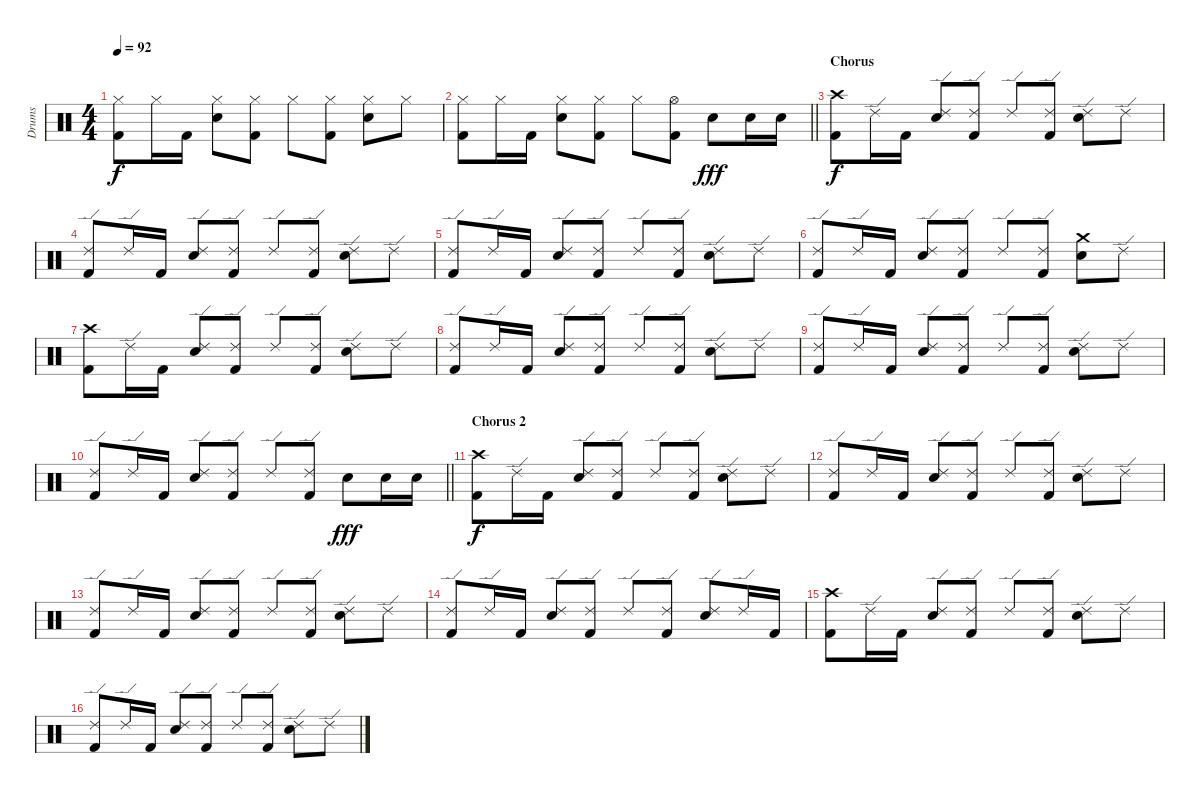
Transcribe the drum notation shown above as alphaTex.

\track ("Drums" "Drums") {instrument percussion}
\staff {score}
\articulation defaults
\ts (4 4)
\tempo 92
\clef neutral
\ks c
("Hi-Hat (closed)" "Kick (hit) 2").8{dy f} "Hi-Hat (closed)".16 "Kick (hit) 2".16 ("Hi-Hat (closed)" "Electric Snare (hit)").8 ("Hi-Hat (closed)" "Kick (hit) 2").8 "Hi-Hat (closed)".8 ("Hi-Hat (closed)" "Kick (hit) 2").8 ("Hi-Hat (closed)" "Electric Snare (hit)").8 "Hi-Hat (closed)".8 |
\barLineRight lightlight
("Hi-Hat (closed)" "Kick (hit) 2").8 "Hi-Hat (closed)".16 "Kick (hit) 2".16 ("Hi-Hat (closed)" "Electric Snare (hit)").8 ("Hi-Hat (closed)" "Kick (hit) 2").8 "Hi-Hat (closed)".8 ("Hi-Hat (open)" "Kick (hit) 2").8 "Electric Snare (hit)".8{dy fff} "Electric Snare (hit)".16 "Electric Snare (hit)".16 |
\section ("" "Chorus")
("Crash high (hit)" "Kick (hit) 2").8{dy f} "Ride (edge) 2".16 "Kick (hit) 2".16 ("Ride (edge) 2" "Electric Snare (hit)").8 ("Ride (edge) 2" "Kick (hit) 2").8 "Ride (edge) 2".8 ("Ride (edge) 2" "Kick (hit) 2").8 ("Ride (edge) 2" "Electric Snare (hit)").8 "Ride (edge) 2".8 |
("Ride (edge) 2" "Kick (hit) 2").8 "Ride (edge) 2".16 "Kick (hit) 2".16 ("Ride (edge) 2" "Electric Snare (hit)").8 ("Ride (edge) 2" "Kick (hit) 2").8 "Ride (edge) 2".8 ("Ride (edge) 2" "Kick (hit) 2").8 ("Ride (edge) 2" "Electric Snare (hit)").8 "Ride (edge) 2".8 |
("Ride (edge) 2" "Kick (hit) 2").8 "Ride (edge) 2".16 "Kick (hit) 2".16 ("Ride (edge) 2" "Electric Snare (hit)").8 ("Ride (edge) 2" "Kick (hit) 2").8 "Ride (edge) 2".8 ("Ride (edge) 2" "Kick (hit) 2").8 ("Ride (edge) 2" "Electric Snare (hit)").8 "Ride (edge) 2".8 |
("Ride (edge) 2" "Kick (hit) 2").8 "Ride (edge) 2".16 "Kick (hit) 2".16 ("Ride (edge) 2" "Electric Snare (hit)").8 ("Ride (edge) 2" "Kick (hit) 2").8 "Ride (edge) 2".8 ("Ride (edge) 2" "Kick (hit) 2").8 ("Crash medium (hit)" "Electric Snare (hit)").8 "Ride (edge) 2".8 |
("Crash high (hit)" "Kick (hit) 2").8 "Ride (edge) 2".16 "Kick (hit) 2".16 ("Ride (edge) 2" "Electric Snare (hit)").8 ("Ride (edge) 2" "Kick (hit) 2").8 "Ride (edge) 2".8 ("Ride (edge) 2" "Kick (hit) 2").8 ("Ride (edge) 2" "Electric Snare (hit)").8 "Ride (edge) 2".8 |
("Ride (edge) 2" "Kick (hit) 2").8 "Ride (edge) 2".16 "Kick (hit) 2".16 ("Ride (edge) 2" "Electric Snare (hit)").8 ("Ride (edge) 2" "Kick (hit) 2").8 "Ride (edge) 2".8 ("Ride (edge) 2" "Kick (hit) 2").8 ("Ride (edge) 2" "Electric Snare (hit)").8 "Ride (edge) 2".8 |
("Ride (edge) 2" "Kick (hit) 2").8 "Ride (edge) 2".16 "Kick (hit) 2".16 ("Ride (edge) 2" "Electric Snare (hit)").8 ("Ride (edge) 2" "Kick (hit) 2").8 "Ride (edge) 2".8 ("Ride (edge) 2" "Kick (hit) 2").8 ("Ride (edge) 2" "Electric Snare (hit)").8 "Ride (edge) 2".8 |
\barLineRight lightlight
("Ride (edge) 2" "Kick (hit) 2").8 "Ride (edge) 2".16 "Kick (hit) 2".16 ("Ride (edge) 2" "Electric Snare (hit)").8 ("Ride (edge) 2" "Kick (hit) 2").8 "Ride (edge) 2".8 ("Ride (edge) 2" "Kick (hit) 2").8 "Electric Snare (hit)".8{dy fff} "Electric Snare (hit)".16 "Electric Snare (hit)".16 |
\section ("" "Chorus 2")
("Crash high (hit)" "Kick (hit) 2").8{dy f} "Ride (edge) 2".16 "Kick (hit) 2".16 ("Ride (edge) 2" "Electric Snare (hit)").8 ("Ride (edge) 2" "Kick (hit) 2").8 "Ride (edge) 2".8 ("Ride (edge) 2" "Kick (hit) 2").8 ("Ride (edge) 2" "Electric Snare (hit)").8 "Ride (edge) 2".8 |
("Ride (edge) 2" "Kick (hit) 2").8 "Ride (edge) 2".16 "Kick (hit) 2".16 ("Ride (edge) 2" "Electric Snare (hit)").8 ("Ride (edge) 2" "Kick (hit) 2").8 "Ride (edge) 2".8 ("Ride (edge) 2" "Kick (hit) 2").8 ("Ride (edge) 2" "Electric Snare (hit)").8 "Ride (edge) 2".8 |
("Ride (edge) 2" "Kick (hit) 2").8 "Ride (edge) 2".16 "Kick (hit) 2".16 ("Ride (edge) 2" "Electric Snare (hit)").8 ("Ride (edge) 2" "Kick (hit) 2").8 "Ride (edge) 2".8 ("Ride (edge) 2" "Kick (hit) 2").8 ("Ride (edge) 2" "Electric Snare (hit)").8 "Ride (edge) 2".8 |
("Ride (edge) 2" "Kick (hit) 2").8 "Ride (edge) 2".16 "Kick (hit) 2".16 ("Ride (edge) 2" "Electric Snare (hit)").8 ("Ride (edge) 2" "Kick (hit) 2").8 "Ride (edge) 2".8 ("Ride (edge) 2" "Kick (hit) 2").8 ("Ride (edge) 2" "Electric Snare (hit)").8 "Ride (edge) 2".16 "Kick (hit) 2".16 |
("Crash high (hit)" "Kick (hit) 2").8 "Ride (edge) 2".16 "Kick (hit) 2".16 ("Ride (edge) 2" "Electric Snare (hit)").8 ("Ride (edge) 2" "Kick (hit) 2").8 "Ride (edge) 2".8 ("Ride (edge) 2" "Kick (hit) 2").8 ("Ride (edge) 2" "Electric Snare (hit)").8 "Ride (edge) 2".8 |
("Ride (edge) 2" "Kick (hit) 2").8 "Ride (edge) 2".16 "Kick (hit) 2".16 ("Ride (edge) 2" "Electric Snare (hit)").8 ("Ride (edge) 2" "Kick (hit) 2").8 "Ride (edge) 2".8 ("Ride (edge) 2" "Kick (hit) 2").8 ("Ride (edge) 2" "Electric Snare (hit)").8 "Ride (edge) 2".8
